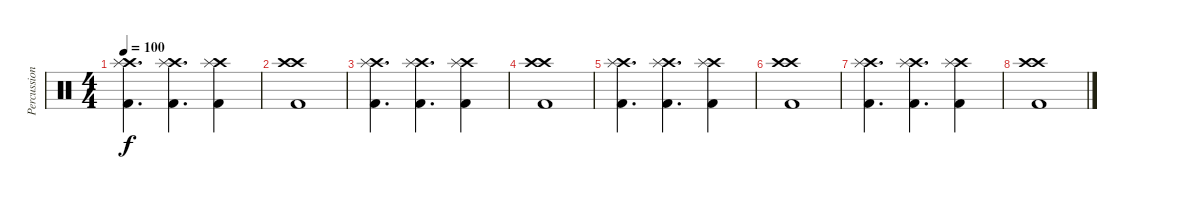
\track ("Percussion" "Percussion") {instrument percussion}
\staff {score}
\articulation defaults
\ts (4 4)
\tempo 100
\clef neutral
\ks c
("Crash high (hit)" "Splash (hit)" "Kick (hit) 2").4{d dy f} ("Crash high (hit)" "Splash (hit)" "Kick (hit) 2").4{d} ("Crash high (hit)" "Splash (hit)" "Kick (hit) 2").4 |
("Crash high (hit)" "Crash high (hit)" "Kick (hit) 2").1 |
("Crash high (hit)" "Splash (hit)" "Kick (hit) 2").4{d} ("Crash high (hit)" "Splash (hit)" "Kick (hit) 2").4{d} ("Crash high (hit)" "Splash (hit)" "Kick (hit) 2").4 |
("Crash high (hit)" "Crash high (hit)" "Kick (hit) 2").1 |
("Crash high (hit)" "Splash (hit)" "Kick (hit) 2").4{d} ("Crash high (hit)" "Splash (hit)" "Kick (hit) 2").4{d} ("Crash high (hit)" "Splash (hit)" "Kick (hit) 2").4 |
("Crash high (hit)" "Crash high (hit)" "Kick (hit) 2").1 |
("Crash high (hit)" "Splash (hit)" "Kick (hit) 2").4{d} ("Crash high (hit)" "Splash (hit)" "Kick (hit) 2").4{d} ("Crash high (hit)" "Splash (hit)" "Kick (hit) 2").4 |
("Crash high (hit)" "Crash high (hit)" "Kick (hit) 2").1
